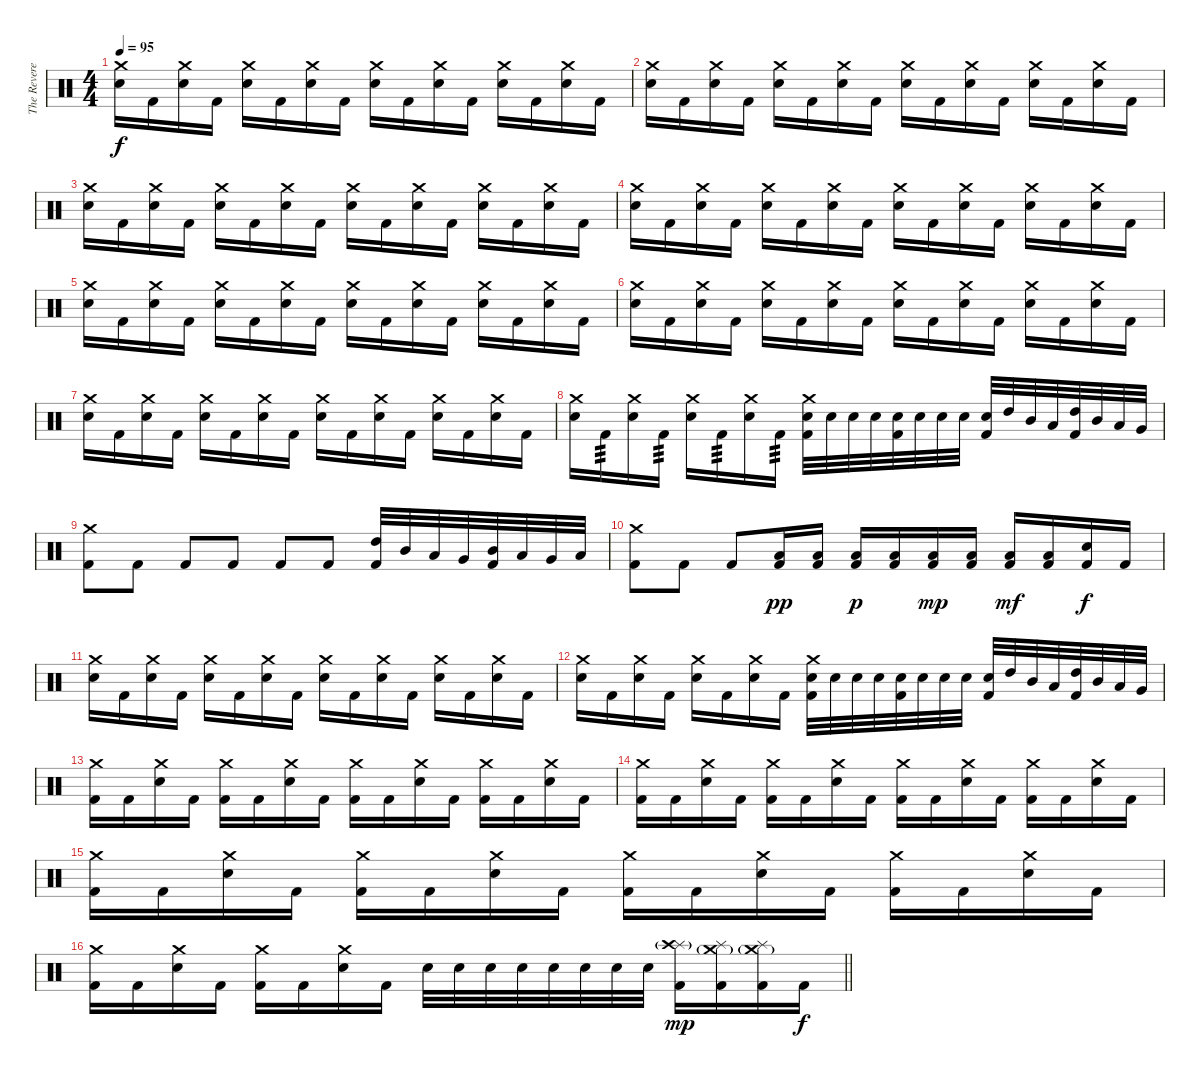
\track ("The Reverend" "The Revere") {instrument percussion}
\staff {score}
\articulation defaults
\ts (4 4)
\tempo 95
\clef neutral
\ks c
("Crash medium (hit)" "Electric Snare (hit)").16{dy f} "Kick (hit) 2".16 ("Crash medium (hit)" "Electric Snare (hit)").16 "Kick (hit) 2".16 ("Crash medium (hit)" "Electric Snare (hit)").16 "Kick (hit) 2".16 ("Crash medium (hit)" "Electric Snare (hit)").16 "Kick (hit) 2".16 ("Crash medium (hit)" "Electric Snare (hit)").16 "Kick (hit) 2".16 ("Crash medium (hit)" "Electric Snare (hit)").16 "Kick (hit) 2".16 ("Crash medium (hit)" "Electric Snare (hit)").16 "Kick (hit) 2".16 ("Crash medium (hit)" "Electric Snare (hit)").16 "Kick (hit) 2".16 |
("Crash medium (hit)" "Electric Snare (hit)").16 "Kick (hit) 2".16 ("Crash medium (hit)" "Electric Snare (hit)").16 "Kick (hit) 2".16 ("Crash medium (hit)" "Electric Snare (hit)").16 "Kick (hit) 2".16 ("Crash medium (hit)" "Electric Snare (hit)").16 "Kick (hit) 2".16 ("Crash medium (hit)" "Electric Snare (hit)").16 "Kick (hit) 2".16 ("Crash medium (hit)" "Electric Snare (hit)").16 "Kick (hit) 2".16 ("Crash medium (hit)" "Electric Snare (hit)").16 "Kick (hit) 2".16 ("Crash medium (hit)" "Electric Snare (hit)").16 "Kick (hit) 2".16 |
("Crash medium (hit)" "Electric Snare (hit)").16 "Kick (hit) 2".16 ("Crash medium (hit)" "Electric Snare (hit)").16 "Kick (hit) 2".16 ("Crash medium (hit)" "Electric Snare (hit)").16 "Kick (hit) 2".16 ("Crash medium (hit)" "Electric Snare (hit)").16 "Kick (hit) 2".16 ("Crash medium (hit)" "Electric Snare (hit)").16 "Kick (hit) 2".16 ("Crash medium (hit)" "Electric Snare (hit)").16 "Kick (hit) 2".16 ("Crash medium (hit)" "Electric Snare (hit)").16 "Kick (hit) 2".16 ("Crash medium (hit)" "Electric Snare (hit)").16 "Kick (hit) 2".16 |
("Crash medium (hit)" "Electric Snare (hit)").16 "Kick (hit) 2".16 ("Crash medium (hit)" "Electric Snare (hit)").16 "Kick (hit) 2".16 ("Crash medium (hit)" "Electric Snare (hit)").16 "Kick (hit) 2".16 ("Crash medium (hit)" "Electric Snare (hit)").16 "Kick (hit) 2".16 ("Crash medium (hit)" "Electric Snare (hit)").16 "Kick (hit) 2".16 ("Crash medium (hit)" "Electric Snare (hit)").16 "Kick (hit) 2".16 ("Crash medium (hit)" "Electric Snare (hit)").16 "Kick (hit) 2".16 ("Crash medium (hit)" "Electric Snare (hit)").16 "Kick (hit) 2".16 |
("Crash medium (hit)" "Electric Snare (hit)").16 "Kick (hit) 2".16 ("Crash medium (hit)" "Electric Snare (hit)").16 "Kick (hit) 2".16 ("Crash medium (hit)" "Electric Snare (hit)").16 "Kick (hit) 2".16 ("Crash medium (hit)" "Electric Snare (hit)").16 "Kick (hit) 2".16 ("Crash medium (hit)" "Electric Snare (hit)").16 "Kick (hit) 2".16 ("Crash medium (hit)" "Electric Snare (hit)").16 "Kick (hit) 2".16 ("Crash medium (hit)" "Electric Snare (hit)").16 "Kick (hit) 2".16 ("Crash medium (hit)" "Electric Snare (hit)").16 "Kick (hit) 2".16 |
("Crash medium (hit)" "Electric Snare (hit)").16 "Kick (hit) 2".16 ("Crash medium (hit)" "Electric Snare (hit)").16 "Kick (hit) 2".16 ("Crash medium (hit)" "Electric Snare (hit)").16 "Kick (hit) 2".16 ("Crash medium (hit)" "Electric Snare (hit)").16 "Kick (hit) 2".16 ("Crash medium (hit)" "Electric Snare (hit)").16 "Kick (hit) 2".16 ("Crash medium (hit)" "Electric Snare (hit)").16 "Kick (hit) 2".16 ("Crash medium (hit)" "Electric Snare (hit)").16 "Kick (hit) 2".16 ("Crash medium (hit)" "Electric Snare (hit)").16 "Kick (hit) 2".16 |
("Crash medium (hit)" "Electric Snare (hit)").16 "Kick (hit) 2".16 ("Crash medium (hit)" "Electric Snare (hit)").16 "Kick (hit) 2".16 ("Crash medium (hit)" "Electric Snare (hit)").16 "Kick (hit) 2".16 ("Crash medium (hit)" "Electric Snare (hit)").16 "Kick (hit) 2".16 ("Crash medium (hit)" "Electric Snare (hit)").16 "Kick (hit) 2".16 ("Crash medium (hit)" "Electric Snare (hit)").16 "Kick (hit) 2".16 ("Crash medium (hit)" "Electric Snare (hit)").16 "Kick (hit) 2".16 ("Crash medium (hit)" "Electric Snare (hit)").16 "Kick (hit) 2".16 |
("Crash medium (hit)" "Electric Snare (hit)").16 "Kick (hit) 2".16{tp 3} ("Crash medium (hit)" "Electric Snare (hit)").16 "Kick (hit) 2".16{tp 3} ("Crash medium (hit)" "Electric Snare (hit)").16 "Kick (hit) 2".16{tp 3} ("Crash medium (hit)" "Electric Snare (hit)").16 "Kick (hit) 2".16{tp 3} ("Crash medium (hit)" "Electric Snare (hit)" "Kick (hit) 2").32 "Electric Snare (hit)".32 "Electric Snare (hit)".32 "Electric Snare (hit)".32 ("Electric Snare (hit)" "Kick (hit) 2").32 "Electric Snare (hit)".32 "Electric Snare (hit)".32 "Electric Snare (hit)".32 ("Electric Snare (hit)" "Kick (hit) 2").32 "High Tom (hit)".32 "Mid Tom (hit)".32 "Low Tom (hit)".32 ("High Tom (hit)" "Kick (hit) 2").32 "Mid Tom (hit)".32 "Low Tom (hit)".32 "Very Low Tom (hit)".32 |
("Crash medium (hit)" "Kick (hit) 2").8 "Kick (hit) 2".8 "Kick (hit) 2".8 "Kick (hit) 2".8 "Kick (hit) 2".8 "Kick (hit) 2".8 ("High Tom (hit)" "Kick (hit) 2").32 "Mid Tom (hit)".32 "Low Tom (hit)".32 "Very Low Tom (hit)".32 ("Mid Tom (hit)" "Kick (hit) 2").32 "Low Tom (hit)".32 "Very Low Tom (hit)".32 "Low Floor Tom (hit)".32 |
("Crash medium (hit)" "Kick (hit) 2").8 "Kick (hit) 2".8 "Kick (hit) 2".8 ("Low Floor Tom (hit)" "Kick (hit) 2").16{dy pp} ("Low Floor Tom (hit)" "Kick (hit) 2").16 ("Low Floor Tom (hit)" "Kick (hit) 2").16{dy p} ("Low Floor Tom (hit)" "Kick (hit) 2").16 ("Low Floor Tom (hit)" "Kick (hit) 2").16{dy mp} ("Low Floor Tom (hit)" "Kick (hit) 2").16 ("Low Floor Tom (hit)" "Kick (hit) 2").16{dy mf} ("Low Floor Tom (hit)" "Kick (hit) 2").16 ("Electric Snare (hit)" "Kick (hit) 2").16{dy f} "Kick (hit) 2".16 |
("Crash medium (hit)" "Electric Snare (hit)").16 "Kick (hit) 2".16 ("Crash medium (hit)" "Electric Snare (hit)").16 "Kick (hit) 2".16 ("Crash medium (hit)" "Electric Snare (hit)").16 "Kick (hit) 2".16 ("Crash medium (hit)" "Electric Snare (hit)").16 "Kick (hit) 2".16 ("Crash medium (hit)" "Electric Snare (hit)").16 "Kick (hit) 2".16 ("Crash medium (hit)" "Electric Snare (hit)").16 "Kick (hit) 2".16 ("Crash medium (hit)" "Electric Snare (hit)").16 "Kick (hit) 2".16 ("Crash medium (hit)" "Electric Snare (hit)").16 "Kick (hit) 2".16 |
("Crash medium (hit)" "Electric Snare (hit)").16 "Kick (hit) 2".16 ("Crash medium (hit)" "Electric Snare (hit)").16 "Kick (hit) 2".16 ("Crash medium (hit)" "Electric Snare (hit)").16 "Kick (hit) 2".16 ("Crash medium (hit)" "Electric Snare (hit)").16 "Kick (hit) 2".16 ("Crash medium (hit)" "Electric Snare (hit)" "Kick (hit) 2").32 "Electric Snare (hit)".32 "Electric Snare (hit)".32 "Electric Snare (hit)".32 ("Electric Snare (hit)" "Kick (hit) 2").32 "Electric Snare (hit)".32 "Electric Snare (hit)".32 "Electric Snare (hit)".32 ("Electric Snare (hit)" "Kick (hit) 2").32 "High Tom (hit)".32 "Mid Tom (hit)".32 "Low Tom (hit)".32 ("High Tom (hit)" "Kick (hit) 2").32 "Mid Tom (hit)".32 "Low Tom (hit)".32 "Very Low Tom (hit)".32 |
("Crash medium (hit)" "Kick (hit) 2").16 "Kick (hit) 2".16 ("Crash medium (hit)" "Electric Snare (hit)").16 "Kick (hit) 2".16 ("Crash medium (hit)" "Kick (hit) 2").16 "Kick (hit) 2".16 ("Crash medium (hit)" "Electric Snare (hit)").16 "Kick (hit) 2".16 ("Crash medium (hit)" "Kick (hit) 2").16 "Kick (hit) 2".16 ("Crash medium (hit)" "Electric Snare (hit)").16 "Kick (hit) 2".16 ("Crash medium (hit)" "Kick (hit) 2").16 "Kick (hit) 2".16 ("Crash medium (hit)" "Electric Snare (hit)").16 "Kick (hit) 2".16 |
("Crash medium (hit)" "Kick (hit) 2").16 "Kick (hit) 2".16 ("Crash medium (hit)" "Electric Snare (hit)").16 "Kick (hit) 2".16 ("Crash medium (hit)" "Kick (hit) 2").16 "Kick (hit) 2".16 ("Crash medium (hit)" "Electric Snare (hit)").16 "Kick (hit) 2".16 ("Crash medium (hit)" "Kick (hit) 2").16 "Kick (hit) 2".16 ("Crash medium (hit)" "Electric Snare (hit)").16 "Kick (hit) 2".16 ("Crash medium (hit)" "Kick (hit) 2").16 "Kick (hit) 2".16 ("Crash medium (hit)" "Electric Snare (hit)").16 "Kick (hit) 2".16 |
("Crash medium (hit)" "Kick (hit) 2").16 "Kick (hit) 2".16 ("Crash medium (hit)" "Electric Snare (hit)").16 "Kick (hit) 2".16 ("Crash medium (hit)" "Kick (hit) 2").16 "Kick (hit) 2".16 ("Crash medium (hit)" "Electric Snare (hit)").16 "Kick (hit) 2".16 ("Crash medium (hit)" "Kick (hit) 2").16 "Kick (hit) 2".16 ("Crash medium (hit)" "Electric Snare (hit)").16 "Kick (hit) 2".16 ("Crash medium (hit)" "Kick (hit) 2").16 "Kick (hit) 2".16 ("Crash medium (hit)" "Electric Snare (hit)").16 "Kick (hit) 2".16 |
\barLineRight lightlight
("Crash medium (hit)" "Kick (hit) 2").16 "Kick (hit) 2".16 ("Crash medium (hit)" "Electric Snare (hit)").16 "Kick (hit) 2".16 ("Crash medium (hit)" "Kick (hit) 2").16 "Kick (hit) 2".16 ("Crash medium (hit)" "Electric Snare (hit)").16 "Kick (hit) 2".16 "Electric Snare (hit)".32 "Electric Snare (hit)".32 "Electric Snare (hit)".32 "Electric Snare (hit)".32 "Electric Snare (hit)".32 "Electric Snare (hit)".32 "Electric Snare (hit)".32 "Electric Snare (hit)".32 ("Splash (hit)" "Crash high (hit)"{g} "Kick (hit) 2").16{dy mp} ("Splash (hit)" "Crash medium (hit)"{g} "Kick (hit) 2").16 ("Splash (hit)" "Crash medium (hit)"{g} "Kick (hit) 2").16 "Kick (hit) 2".16{dy f}
